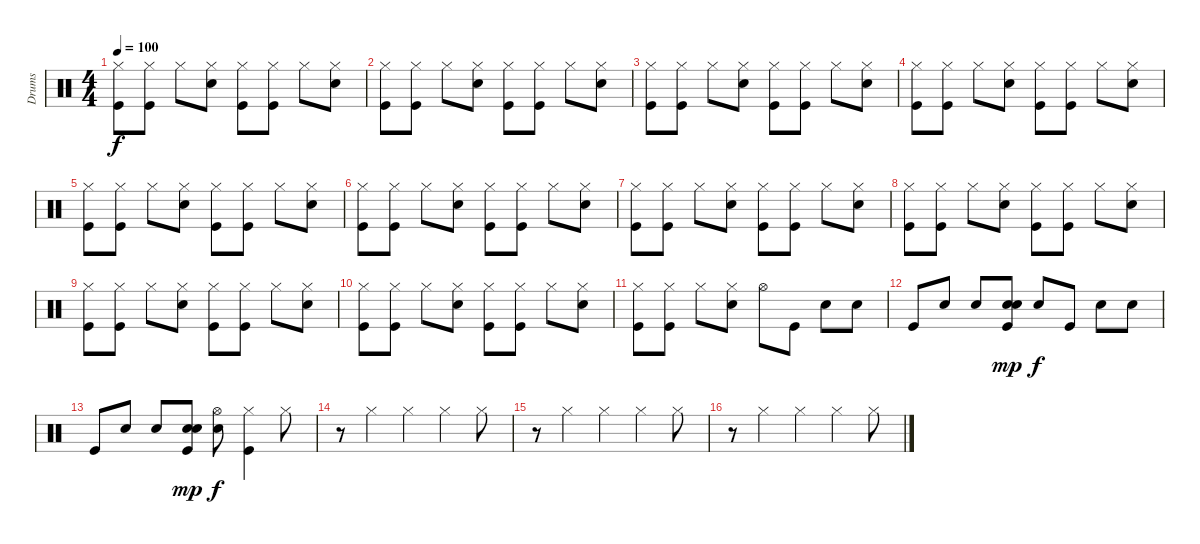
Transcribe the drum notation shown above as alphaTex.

\track ("Drums" "Drums") {instrument percussion}
\staff {score}
\articulation defaults
\ts (4 4)
\tempo 100
\clef neutral
\ks c
("Hi-Hat (closed)" "Kick (hit)").8{dy f} ("Hi-Hat (closed)" "Kick (hit)").8 "Hi-Hat (closed)".8 ("Hi-Hat (closed)" "Snare (hit) 2").8 ("Hi-Hat (closed)" "Kick (hit)").8 ("Hi-Hat (closed)" "Kick (hit)").8 "Hi-Hat (closed)".8 ("Hi-Hat (closed)" "Snare (hit) 2").8 |
("Hi-Hat (closed)" "Kick (hit)").8 ("Hi-Hat (closed)" "Kick (hit)").8 "Hi-Hat (closed)".8 ("Hi-Hat (closed)" "Snare (hit) 2").8 ("Hi-Hat (closed)" "Kick (hit)").8 ("Hi-Hat (closed)" "Kick (hit)").8 "Hi-Hat (closed)".8 ("Hi-Hat (closed)" "Snare (hit) 2").8 |
("Hi-Hat (closed)" "Kick (hit)").8 ("Hi-Hat (closed)" "Kick (hit)").8 "Hi-Hat (closed)".8 ("Hi-Hat (closed)" "Snare (hit) 2").8 ("Hi-Hat (closed)" "Kick (hit)").8 ("Hi-Hat (closed)" "Kick (hit)").8 "Hi-Hat (closed)".8 ("Hi-Hat (closed)" "Snare (hit) 2").8 |
("Hi-Hat (closed)" "Kick (hit)").8 ("Hi-Hat (closed)" "Kick (hit)").8 "Hi-Hat (closed)".8 ("Hi-Hat (closed)" "Snare (hit) 2").8 ("Hi-Hat (closed)" "Kick (hit)").8 ("Hi-Hat (closed)" "Kick (hit)").8 "Hi-Hat (closed)".8 ("Hi-Hat (closed)" "Snare (hit) 2").8 |
("Hi-Hat (closed)" "Kick (hit)").8 ("Hi-Hat (closed)" "Kick (hit)").8 "Hi-Hat (closed)".8 ("Hi-Hat (closed)" "Snare (hit) 2").8 ("Hi-Hat (closed)" "Kick (hit)").8 ("Hi-Hat (closed)" "Kick (hit)").8 "Hi-Hat (closed)".8 ("Hi-Hat (closed)" "Snare (hit) 2").8 |
("Hi-Hat (closed)" "Kick (hit)").8 ("Hi-Hat (closed)" "Kick (hit)").8 "Hi-Hat (closed)".8 ("Hi-Hat (closed)" "Snare (hit) 2").8 ("Hi-Hat (closed)" "Kick (hit)").8 ("Hi-Hat (closed)" "Kick (hit)").8 "Hi-Hat (closed)".8 ("Hi-Hat (closed)" "Snare (hit) 2").8 |
("Hi-Hat (closed)" "Kick (hit)").8 ("Hi-Hat (closed)" "Kick (hit)").8 "Hi-Hat (closed)".8 ("Hi-Hat (closed)" "Snare (hit) 2").8 ("Hi-Hat (closed)" "Kick (hit)").8 ("Hi-Hat (closed)" "Kick (hit)").8 "Hi-Hat (closed)".8 ("Hi-Hat (closed)" "Snare (hit) 2").8 |
("Hi-Hat (closed)" "Kick (hit)").8 ("Hi-Hat (closed)" "Kick (hit)").8 "Hi-Hat (closed)".8 ("Hi-Hat (closed)" "Snare (hit) 2").8 ("Hi-Hat (closed)" "Kick (hit)").8 ("Hi-Hat (closed)" "Kick (hit)").8 "Hi-Hat (closed)".8 ("Hi-Hat (closed)" "Snare (hit) 2").8 |
("Hi-Hat (closed)" "Kick (hit)").8 ("Hi-Hat (closed)" "Kick (hit)").8 "Hi-Hat (closed)".8 ("Hi-Hat (closed)" "Snare (hit) 2").8 ("Hi-Hat (closed)" "Kick (hit)").8 ("Hi-Hat (closed)" "Kick (hit)").8 "Hi-Hat (closed)".8 ("Hi-Hat (closed)" "Snare (hit) 2").8 |
("Hi-Hat (closed)" "Kick (hit)").8 ("Hi-Hat (closed)" "Kick (hit)").8 "Hi-Hat (closed)".8 ("Hi-Hat (closed)" "Snare (hit) 2").8 ("Hi-Hat (closed)" "Kick (hit)").8 ("Hi-Hat (closed)" "Kick (hit)").8 "Hi-Hat (closed)".8 ("Hi-Hat (closed)" "Snare (hit) 2").8 |
("Hi-Hat (closed)" "Kick (hit)").8 ("Hi-Hat (closed)" "Kick (hit)").8 "Hi-Hat (closed)".8 ("Hi-Hat (closed)" "Snare (hit) 2").8 "Hi-Hat (open)".8 "Kick (hit)".8 "Hand Clap (hit)".8 "Hand Clap (hit)".8 |
"Kick (hit)".8 "Hand Clap (hit)".8 "Hand Clap (hit)".8 ("Snare (hit) 2" "Hand Clap (hit)" "Kick (hit)").8{dy mp} "Hand Clap (hit)".8{dy f} "Kick (hit)".8 "Hand Clap (hit)".8 "Hand Clap (hit)".8 |
"Kick (hit)".8 "Hand Clap (hit)".8 "Hand Clap (hit)".8 ("Snare (hit) 2" "Hand Clap (hit)" "Kick (hit)").8{dy mp} ("Hi-Hat (open)" "Hand Clap (hit)").8{dy f} ("Hi-Hat (closed)" "Kick (hit)").4 "Hi-Hat (closed)".8 |
r.8 "Hi-Hat (closed)".4 "Hi-Hat (closed)".4 "Hi-Hat (closed)".4 "Hi-Hat (closed)".8 |
r.8 "Hi-Hat (closed)".4 "Hi-Hat (closed)".4 "Hi-Hat (closed)".4 "Hi-Hat (closed)".8 |
r.8 "Hi-Hat (closed)".4 "Hi-Hat (closed)".4 "Hi-Hat (closed)".4 "Hi-Hat (closed)".8
